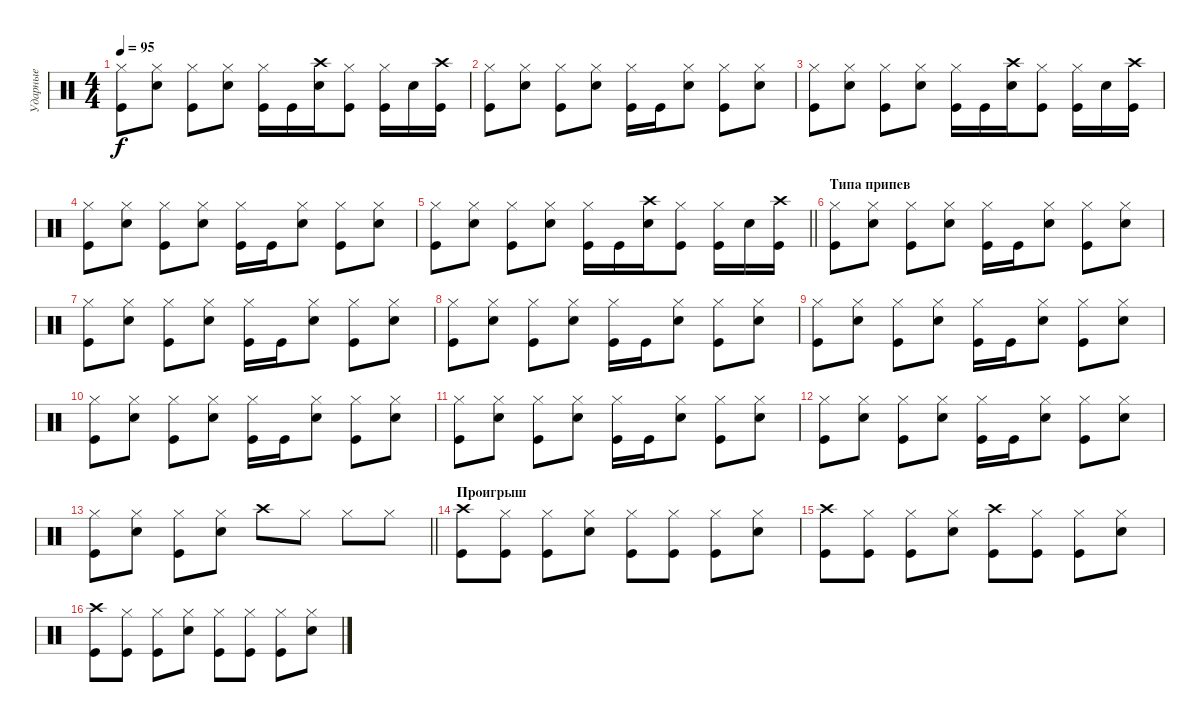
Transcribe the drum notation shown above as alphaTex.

\track ("Ударные" "Ударные") {instrument percussion}
\staff {score}
\articulation defaults
\ts (4 4)
\tempo 95
\clef neutral
\ks c
("Hi-Hat (closed)" "Kick (hit)").8{dy f} ("Hi-Hat (closed)" "Snare (hit) 2").8 ("Hi-Hat (closed)" "Kick (hit)").8 ("Hi-Hat (closed)" "Snare (hit) 2").8 ("Hi-Hat (closed)" "Kick (hit)").16 "Kick (hit)".16 ("Crash high (hit)" "Snare (hit) 2").16 ("Hi-Hat (closed)" "Kick (hit)").8 ("Hi-Hat (closed)" "Kick (hit)").16 "Snare (hit) 2".16 ("Crash high (hit)" "Kick (hit)").16 |
("Hi-Hat (closed)" "Kick (hit)").8 ("Hi-Hat (closed)" "Snare (hit) 2").8 ("Hi-Hat (closed)" "Kick (hit)").8 ("Hi-Hat (closed)" "Snare (hit) 2").8 ("Hi-Hat (closed)" "Kick (hit)").16 "Kick (hit)".16 ("Hi-Hat (closed)" "Snare (hit) 2").8 ("Hi-Hat (closed)" "Kick (hit)").8 ("Hi-Hat (closed)" "Snare (hit) 2").8 |
("Hi-Hat (closed)" "Kick (hit)").8 ("Hi-Hat (closed)" "Snare (hit) 2").8 ("Hi-Hat (closed)" "Kick (hit)").8 ("Hi-Hat (closed)" "Snare (hit) 2").8 ("Hi-Hat (closed)" "Kick (hit)").16 "Kick (hit)".16 ("Crash high (hit)" "Snare (hit) 2").16 ("Hi-Hat (closed)" "Kick (hit)").8 ("Hi-Hat (closed)" "Kick (hit)").16 "Snare (hit) 2".16 ("Crash high (hit)" "Kick (hit)").16 |
("Hi-Hat (closed)" "Kick (hit)").8 ("Hi-Hat (closed)" "Snare (hit) 2").8 ("Hi-Hat (closed)" "Kick (hit)").8 ("Hi-Hat (closed)" "Snare (hit) 2").8 ("Hi-Hat (closed)" "Kick (hit)").16 "Kick (hit)".16 ("Hi-Hat (closed)" "Snare (hit) 2").8 ("Hi-Hat (closed)" "Kick (hit)").8 ("Hi-Hat (closed)" "Snare (hit) 2").8 |
\barLineRight lightlight
("Hi-Hat (closed)" "Kick (hit)").8 ("Hi-Hat (closed)" "Snare (hit) 2").8 ("Hi-Hat (closed)" "Kick (hit)").8 ("Hi-Hat (closed)" "Snare (hit) 2").8 ("Hi-Hat (closed)" "Kick (hit)").16 "Kick (hit)".16 ("Crash high (hit)" "Snare (hit) 2").16 ("Hi-Hat (closed)" "Kick (hit)").8 ("Hi-Hat (closed)" "Kick (hit)").16 "Snare (hit) 2".16 ("Crash high (hit)" "Kick (hit)").16 |
\section ("" "Типа припев")
("Hi-Hat (closed)" "Kick (hit)").8 ("Hi-Hat (closed)" "Snare (hit) 2").8 ("Hi-Hat (closed)" "Kick (hit)").8 ("Hi-Hat (closed)" "Snare (hit) 2").8 ("Hi-Hat (closed)" "Kick (hit)").16 "Kick (hit)".16 ("Hi-Hat (closed)" "Snare (hit) 2").8 ("Hi-Hat (closed)" "Kick (hit)").8 ("Hi-Hat (closed)" "Snare (hit) 2").8 |
("Hi-Hat (closed)" "Kick (hit)").8 ("Hi-Hat (closed)" "Snare (hit) 2").8 ("Hi-Hat (closed)" "Kick (hit)").8 ("Hi-Hat (closed)" "Snare (hit) 2").8 ("Hi-Hat (closed)" "Kick (hit)").16 "Kick (hit)".16 ("Hi-Hat (closed)" "Snare (hit) 2").8 ("Hi-Hat (closed)" "Kick (hit)").8 ("Hi-Hat (closed)" "Snare (hit) 2").8 |
("Hi-Hat (closed)" "Kick (hit)").8 ("Hi-Hat (closed)" "Snare (hit) 2").8 ("Hi-Hat (closed)" "Kick (hit)").8 ("Hi-Hat (closed)" "Snare (hit) 2").8 ("Hi-Hat (closed)" "Kick (hit)").16 "Kick (hit)".16 ("Hi-Hat (closed)" "Snare (hit) 2").8 ("Hi-Hat (closed)" "Kick (hit)").8 ("Hi-Hat (closed)" "Snare (hit) 2").8 |
("Hi-Hat (closed)" "Kick (hit)").8 ("Hi-Hat (closed)" "Snare (hit) 2").8 ("Hi-Hat (closed)" "Kick (hit)").8 ("Hi-Hat (closed)" "Snare (hit) 2").8 ("Hi-Hat (closed)" "Kick (hit)").16 "Kick (hit)".16 ("Hi-Hat (closed)" "Snare (hit) 2").8 ("Hi-Hat (closed)" "Kick (hit)").8 ("Hi-Hat (closed)" "Snare (hit) 2").8 |
("Hi-Hat (closed)" "Kick (hit)").8 ("Hi-Hat (closed)" "Snare (hit) 2").8 ("Hi-Hat (closed)" "Kick (hit)").8 ("Hi-Hat (closed)" "Snare (hit) 2").8 ("Hi-Hat (closed)" "Kick (hit)").16 "Kick (hit)".16 ("Hi-Hat (closed)" "Snare (hit) 2").8 ("Hi-Hat (closed)" "Kick (hit)").8 ("Hi-Hat (closed)" "Snare (hit) 2").8 |
("Hi-Hat (closed)" "Kick (hit)").8 ("Hi-Hat (closed)" "Snare (hit) 2").8 ("Hi-Hat (closed)" "Kick (hit)").8 ("Hi-Hat (closed)" "Snare (hit) 2").8 ("Hi-Hat (closed)" "Kick (hit)").16 "Kick (hit)".16 ("Hi-Hat (closed)" "Snare (hit) 2").8 ("Hi-Hat (closed)" "Kick (hit)").8 ("Hi-Hat (closed)" "Snare (hit) 2").8 |
("Hi-Hat (closed)" "Kick (hit)").8 ("Hi-Hat (closed)" "Snare (hit) 2").8 ("Hi-Hat (closed)" "Kick (hit)").8 ("Hi-Hat (closed)" "Snare (hit) 2").8 ("Hi-Hat (closed)" "Kick (hit)").16 "Kick (hit)".16 ("Hi-Hat (closed)" "Snare (hit) 2").8 ("Hi-Hat (closed)" "Kick (hit)").8 ("Hi-Hat (closed)" "Snare (hit) 2").8 |
\barLineRight lightlight
("Hi-Hat (closed)" "Kick (hit)").8 ("Hi-Hat (closed)" "Snare (hit) 2").8 ("Hi-Hat (closed)" "Kick (hit)").8 ("Hi-Hat (closed)" "Snare (hit) 2").8 "Crash high (hit)".8 "Hi-Hat (closed)".8 "Hi-Hat (closed)".8 "Hi-Hat (closed)".8 |
\section ("" "Проигрыш")
("Crash high (hit)" "Kick (hit)").8 ("Hi-Hat (closed)" "Kick (hit)").8 ("Hi-Hat (closed)" "Kick (hit)").8 ("Hi-Hat (closed)" "Snare (hit) 2").8 ("Hi-Hat (closed)" "Kick (hit)").8 ("Hi-Hat (closed)" "Kick (hit)").8 ("Hi-Hat (closed)" "Kick (hit)").8 ("Hi-Hat (closed)" "Snare (hit) 2").8 |
("Crash high (hit)" "Kick (hit)").8 ("Hi-Hat (closed)" "Kick (hit)").8 ("Hi-Hat (closed)" "Kick (hit)").8 ("Hi-Hat (closed)" "Snare (hit) 2").8 ("Crash high (hit)" "Kick (hit)").8 ("Hi-Hat (closed)" "Kick (hit)").8 ("Hi-Hat (closed)" "Kick (hit)").8 ("Hi-Hat (closed)" "Snare (hit) 2").8 |
("Crash high (hit)" "Kick (hit)").8 ("Hi-Hat (closed)" "Kick (hit)").8 ("Hi-Hat (closed)" "Kick (hit)").8 ("Hi-Hat (closed)" "Snare (hit) 2").8 ("Hi-Hat (closed)" "Kick (hit)").8 ("Hi-Hat (closed)" "Kick (hit)").8 ("Hi-Hat (closed)" "Kick (hit)").8 ("Hi-Hat (closed)" "Snare (hit) 2").8
